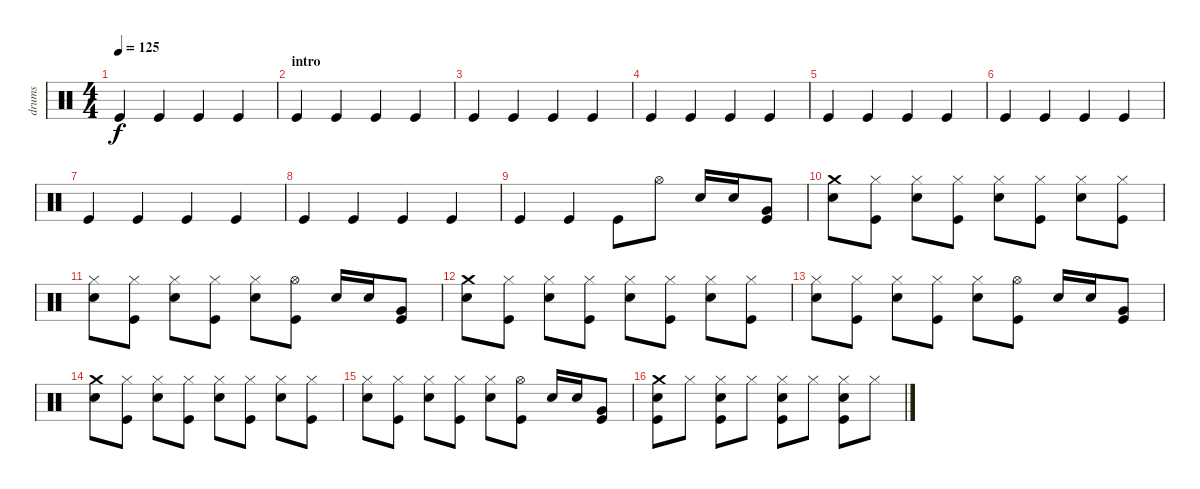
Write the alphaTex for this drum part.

\track ("drums" "drums") {instrument percussion}
\staff {score}
\articulation defaults
\ts (4 4)
\tempo 125
\clef neutral
\ks c "Kick (hit)".4{dy f} "Kick (hit)".4 "Kick (hit)".4 "Kick (hit)".4
|
\section ("" "intro")
"Kick (hit)".4 "Kick (hit)".4 "Kick (hit)".4 "Kick (hit)".4 |
"Kick (hit)".4 "Kick (hit)".4 "Kick (hit)".4 "Kick (hit)".4 |
"Kick (hit)".4 "Kick (hit)".4 "Kick (hit)".4 "Kick (hit)".4 |
"Kick (hit)".4 "Kick (hit)".4 "Kick (hit)".4 "Kick (hit)".4 |
"Kick (hit)".4 "Kick (hit)".4 "Kick (hit)".4 "Kick (hit)".4 |
"Kick (hit)".4 "Kick (hit)".4 "Kick (hit)".4 "Kick (hit)".4 |
"Kick (hit)".4 "Kick (hit)".4 "Kick (hit)".4 "Kick (hit)".4 |
"Kick (hit)".4 "Kick (hit)".4 "Kick (hit)".8 "Hi-Hat (open)".8 "Electric Snare (hit)".16 "Electric Snare (hit)".16 ("Very Low Tom (hit)" "Kick (hit)").8 |
\section ("" "")
("Crash medium (hit)" "Electric Snare (hit)").8 ("Hi-Hat (closed)" "Kick (hit)").8 ("Hi-Hat (closed)" "Electric Snare (hit)").8 ("Hi-Hat (closed)" "Kick (hit)").8 ("Hi-Hat (closed)" "Electric Snare (hit)").8 ("Hi-Hat (closed)" "Kick (hit)").8 ("Hi-Hat (closed)" "Electric Snare (hit)").8 ("Hi-Hat (closed)" "Kick (hit)").8 |
("Hi-Hat (closed)" "Electric Snare (hit)").8 ("Hi-Hat (closed)" "Kick (hit)").8 ("Hi-Hat (closed)" "Electric Snare (hit)").8 ("Hi-Hat (closed)" "Kick (hit)").8 ("Hi-Hat (closed)" "Electric Snare (hit)").8 ("Hi-Hat (open)" "Kick (hit)").8 "Electric Snare (hit)".16 "Electric Snare (hit)".16 ("Very Low Tom (hit)" "Kick (hit)").8 |
("Crash medium (hit)" "Electric Snare (hit)").8 ("Hi-Hat (closed)" "Kick (hit)").8 ("Hi-Hat (closed)" "Electric Snare (hit)").8 ("Hi-Hat (closed)" "Kick (hit)").8 ("Hi-Hat (closed)" "Electric Snare (hit)").8 ("Hi-Hat (closed)" "Kick (hit)").8 ("Hi-Hat (closed)" "Electric Snare (hit)").8 ("Hi-Hat (closed)" "Kick (hit)").8 |
("Hi-Hat (closed)" "Electric Snare (hit)").8 ("Hi-Hat (closed)" "Kick (hit)").8 ("Hi-Hat (closed)" "Electric Snare (hit)").8 ("Hi-Hat (closed)" "Kick (hit)").8 ("Hi-Hat (closed)" "Electric Snare (hit)").8 ("Hi-Hat (open)" "Kick (hit)").8 "Electric Snare (hit)".16 "Electric Snare (hit)".16 ("Very Low Tom (hit)" "Kick (hit)").8 |
("Crash medium (hit)" "Electric Snare (hit)").8 ("Hi-Hat (closed)" "Kick (hit)").8 ("Hi-Hat (closed)" "Electric Snare (hit)").8 ("Hi-Hat (closed)" "Kick (hit)").8 ("Hi-Hat (closed)" "Electric Snare (hit)").8 ("Hi-Hat (closed)" "Kick (hit)").8 ("Hi-Hat (closed)" "Electric Snare (hit)").8 ("Hi-Hat (closed)" "Kick (hit)").8 |
("Hi-Hat (closed)" "Electric Snare (hit)").8 ("Hi-Hat (closed)" "Kick (hit)").8 ("Hi-Hat (closed)" "Electric Snare (hit)").8 ("Hi-Hat (closed)" "Kick (hit)").8 ("Hi-Hat (closed)" "Electric Snare (hit)").8 ("Hi-Hat (open)" "Kick (hit)").8 "Electric Snare (hit)".16 "Electric Snare (hit)".16 ("Very Low Tom (hit)" "Kick (hit)").8 |
("Crash medium (hit)" "Electric Snare (hit)" "Kick (hit)").8 "Hi-Hat (closed)".8 ("Hi-Hat (closed)" "Electric Snare (hit)" "Kick (hit)").8 "Hi-Hat (closed)".8 ("Hi-Hat (closed)" "Electric Snare (hit)" "Kick (hit)").8 "Hi-Hat (closed)".8 ("Hi-Hat (closed)" "Electric Snare (hit)" "Kick (hit)").8 "Hi-Hat (closed)".8
